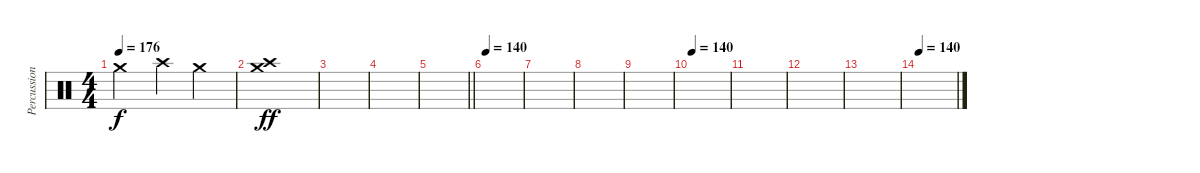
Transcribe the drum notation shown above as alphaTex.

\track ("Percussion" "Percussion") {instrument percussion}
\staff {score}
\articulation defaults
\ts (4 4)
\tempo 176
\clef neutral
\ks c "Crash medium (hit)".2{dy f} "Crash high (hit)".4 "Crash medium (hit)".4
|
("Crash medium (hit)" "Crash high (hit)").1{dy ff} |
|
|
\barLineRight lightlight
|
\tempo 140
|
|
|
|
\tempo 140
|
|
|
|
\tempo 140
